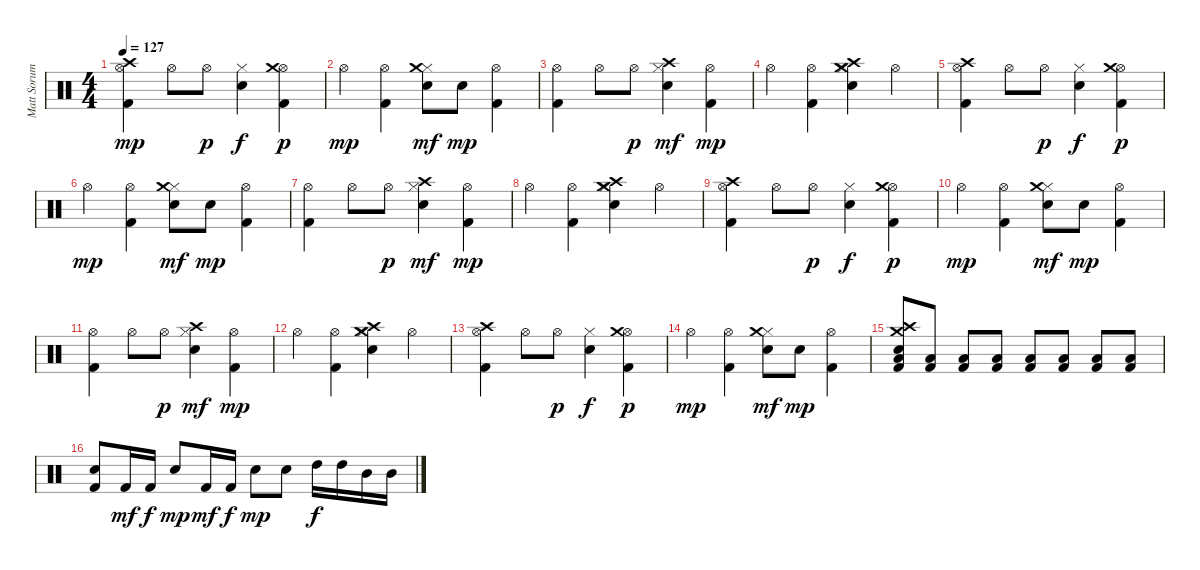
\track ("Matt Sorum" "Matt Sorum") {instrument percussion}
\staff {score}
\articulation defaults
\ts (4 4)
\tempo 127
\clef neutral
\ks c
("Kick (hit) 2" "Hi-Hat (open)" "Crash high (hit)").4{dy mp} "Hi-Hat (open)".8 "Hi-Hat (open)".8{dy p} ("Snare (hit) 2" "Hi-Hat (closed)").4{dy f} ("Kick (hit) 2" "Hi-Hat (open)" "Crash medium (hit)").4{dy p} |
"Hi-Hat (open)".4{dy mp} ("Kick (hit) 2" "Hi-Hat (open)").4 ("Snare (hit) 2" "Hi-Hat (closed)" "Crash medium (hit)").8{dy mf} "Snare (hit) 2".8{dy mp} ("Kick (hit) 2" "Hi-Hat (open)").4 |
("Kick (hit) 2" "Hi-Hat (open)").4 "Hi-Hat (open)".8 "Hi-Hat (open)".8{dy p} ("Snare (hit) 2" "Hi-Hat (closed)" "Crash high (hit)").4{dy mf} ("Kick (hit) 2" "Hi-Hat (open)").4{dy mp} |
"Hi-Hat (open)".4 ("Kick (hit) 2" "Hi-Hat (open)").4 ("Snare (hit) 2" "Hi-Hat (closed)" "Crash high (hit)" "Crash medium (hit)").4 "Hi-Hat (open)".4 |
("Kick (hit) 2" "Hi-Hat (open)" "Crash high (hit)").4 "Hi-Hat (open)".8 "Hi-Hat (open)".8{dy p} ("Snare (hit) 2" "Hi-Hat (closed)").4{dy f} ("Kick (hit) 2" "Hi-Hat (open)" "Crash medium (hit)").4{dy p} |
"Hi-Hat (open)".4{dy mp} ("Kick (hit) 2" "Hi-Hat (open)").4 ("Snare (hit) 2" "Hi-Hat (closed)" "Crash medium (hit)").8{dy mf} "Snare (hit) 2".8{dy mp} ("Kick (hit) 2" "Hi-Hat (open)").4 |
("Kick (hit) 2" "Hi-Hat (open)").4 "Hi-Hat (open)".8 "Hi-Hat (open)".8{dy p} ("Snare (hit) 2" "Hi-Hat (closed)" "Crash high (hit)").4{dy mf} ("Kick (hit) 2" "Hi-Hat (open)").4{dy mp} |
"Hi-Hat (open)".4 ("Kick (hit) 2" "Hi-Hat (open)").4 ("Snare (hit) 2" "Hi-Hat (closed)" "Crash high (hit)" "Crash medium (hit)").4 "Hi-Hat (open)".4 |
("Kick (hit) 2" "Hi-Hat (open)" "Crash high (hit)").4 "Hi-Hat (open)".8 "Hi-Hat (open)".8{dy p} ("Snare (hit) 2" "Hi-Hat (closed)").4{dy f} ("Kick (hit) 2" "Hi-Hat (open)" "Crash medium (hit)").4{dy p} |
"Hi-Hat (open)".4{dy mp} ("Kick (hit) 2" "Hi-Hat (open)").4 ("Snare (hit) 2" "Hi-Hat (closed)" "Crash medium (hit)").8{dy mf} "Snare (hit) 2".8{dy mp} ("Kick (hit) 2" "Hi-Hat (open)").4 |
("Kick (hit) 2" "Hi-Hat (open)").4 "Hi-Hat (open)".8 "Hi-Hat (open)".8{dy p} ("Snare (hit) 2" "Hi-Hat (closed)" "Crash high (hit)").4{dy mf} ("Kick (hit) 2" "Hi-Hat (open)").4{dy mp} |
"Hi-Hat (open)".4 ("Kick (hit) 2" "Hi-Hat (open)").4 ("Snare (hit) 2" "Hi-Hat (closed)" "Crash high (hit)" "Crash medium (hit)").4 "Hi-Hat (open)".4 |
("Kick (hit) 2" "Hi-Hat (open)" "Crash high (hit)").4 "Hi-Hat (open)".8 "Hi-Hat (open)".8{dy p} ("Snare (hit) 2" "Hi-Hat (closed)").4{dy f} ("Kick (hit) 2" "Hi-Hat (open)" "Crash medium (hit)").4{dy p} |
"Hi-Hat (open)".4{dy mp} ("Kick (hit) 2" "Hi-Hat (open)").4 ("Snare (hit) 2" "Hi-Hat (closed)" "Crash medium (hit)").8{dy mf} "Snare (hit) 2".8{dy mp} ("Kick (hit) 2" "Hi-Hat (open)").4 |
("Kick (hit) 2" "Snare (hit) 2" "Low Tom (hit)" "Crash medium (hit)" "Crash high (hit)").8 ("Kick (hit) 2" "Low Tom (hit)").8 ("Kick (hit) 2" "Low Tom (hit)").8 ("Kick (hit) 2" "Low Tom (hit)").8 ("Kick (hit) 2" "Low Tom (hit)").8 ("Kick (hit) 2" "Low Tom (hit)").8 ("Kick (hit) 2" "Low Tom (hit)").8 ("Kick (hit) 2" "Low Tom (hit)").8 |
("Kick (hit) 2" "Snare (hit) 2").8 "Kick (hit) 2".16{dy mf} "Kick (hit) 2".16{dy f} "Snare (hit) 2".8{dy mp} "Kick (hit) 2".16{dy mf} "Kick (hit) 2".16{dy f} "Snare (hit) 2".8{dy mp} "Snare (hit) 2".8 "High Tom (hit)".16{dy f} "High Tom (hit)".16 "Mid Tom (hit)".16 "Mid Tom (hit)".16
